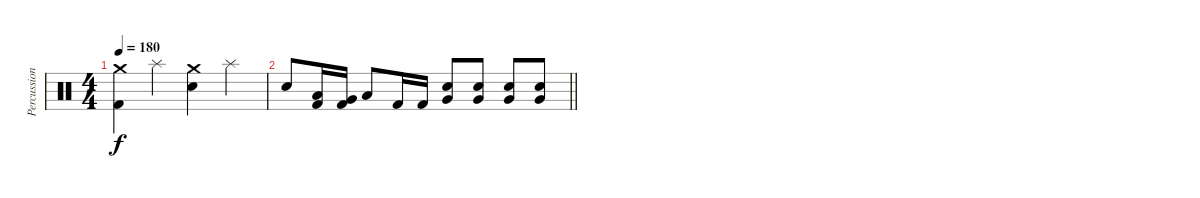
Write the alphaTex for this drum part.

\track ("Percussion" "Percussion") {instrument percussion}
\staff {score}
\articulation defaults
\ts (4 4)
\tempo 180
\clef neutral
\ks c
("Crash medium (hit)" "Kick (hit) 2").4{dy f} "Splash (hit)".4 ("Crash medium (hit)" "Electric Snare (hit)").4 "Splash (hit)".4 |
\barLineRight lightlight "Electric Snare (hit)".8
("Low Tom (hit)" "Kick (hit) 2").16 ("Very Low Tom (hit)" "Kick (hit) 2").16 "Low Floor Tom (hit)".8 "Kick (hit) 2".16 "Kick (hit) 2".16 ("Very Low Tom (hit)" "Electric Snare (hit)").8 ("Very Low Tom (hit)" "Electric Snare (hit)").8 ("Very Low Tom (hit)" "Electric Snare (hit)").8 ("Very Low Tom (hit)" "Electric Snare (hit)").8
